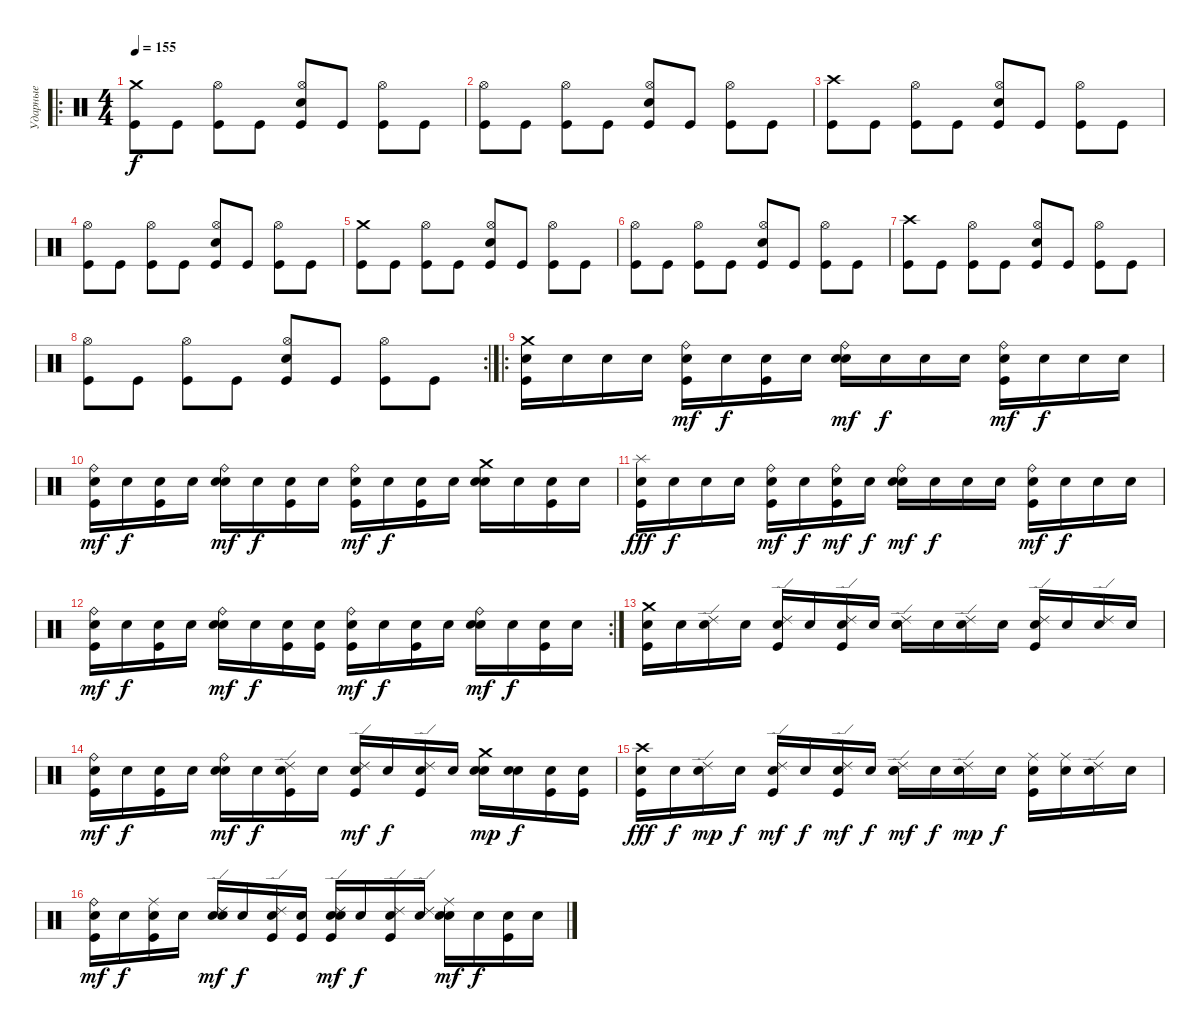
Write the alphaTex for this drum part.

\track ("Ударные" "Ударные") {instrument percussion}
\staff {score}
\articulation defaults
\ro
\ts (4 4)
\tempo 155
\clef neutral
\ks c
("Crash medium (hit)" "Kick (hit)").8{dy f} "Kick (hit)".8 ("Hi-Hat (open)" "Kick (hit)").8 "Kick (hit)".8 ("Snare (hit) 2" "Hi-Hat (open)" "Kick (hit)").8 "Kick (hit)".8 ("Hi-Hat (open)" "Kick (hit)").8 "Kick (hit)".8 |
("Hi-Hat (open)" "Kick (hit)").8 "Kick (hit)".8 ("Hi-Hat (open)" "Kick (hit)").8 "Kick (hit)".8 ("Snare (hit) 2" "Hi-Hat (open)" "Kick (hit)").8 "Kick (hit)".8 ("Hi-Hat (open)" "Kick (hit)").8 "Kick (hit)".8 |
("Crash high (hit)" "Kick (hit)").8 "Kick (hit)".8 ("Hi-Hat (open)" "Kick (hit)").8 "Kick (hit)".8 ("Snare (hit) 2" "Hi-Hat (open)" "Kick (hit)").8 "Kick (hit)".8 ("Hi-Hat (open)" "Kick (hit)").8 "Kick (hit)".8 |
("Hi-Hat (open)" "Kick (hit)").8 "Kick (hit)".8 ("Hi-Hat (open)" "Kick (hit)").8 "Kick (hit)".8 ("Snare (hit) 2" "Hi-Hat (open)" "Kick (hit)").8 "Kick (hit)".8 ("Hi-Hat (open)" "Kick (hit)").8 "Kick (hit)".8 |
("Crash medium (hit)" "Kick (hit)").8 "Kick (hit)".8 ("Hi-Hat (open)" "Kick (hit)").8 "Kick (hit)".8 ("Snare (hit) 2" "Hi-Hat (open)" "Kick (hit)").8 "Kick (hit)".8 ("Hi-Hat (open)" "Kick (hit)").8 "Kick (hit)".8 |
("Hi-Hat (open)" "Kick (hit)").8 "Kick (hit)".8 ("Hi-Hat (open)" "Kick (hit)").8 "Kick (hit)".8 ("Snare (hit) 2" "Hi-Hat (open)" "Kick (hit)").8 "Kick (hit)".8 ("Hi-Hat (open)" "Kick (hit)").8 "Kick (hit)".8 |
("Crash high (hit)" "Kick (hit)").8 "Kick (hit)".8 ("Hi-Hat (open)" "Kick (hit)").8 "Kick (hit)".8 ("Snare (hit) 2" "Hi-Hat (open)" "Kick (hit)").8 "Kick (hit)".8 ("Hi-Hat (open)" "Kick (hit)").8 "Kick (hit)".8 |
\rc 2
("Hi-Hat (open)" "Kick (hit)").8 "Kick (hit)".8 ("Hi-Hat (open)" "Kick (hit)").8 "Kick (hit)".8 ("Snare (hit) 2" "Hi-Hat (open)" "Kick (hit)").8 "Kick (hit)".8 ("Hi-Hat (open)" "Kick (hit)").8 "Kick (hit)".8 |
\ro
("Crash medium (hit)" "Kick (hit)" "Snare (hit)").16 "Snare (hit)".16 "Snare (hit)".16 "Snare (hit)".16 ("Ride (bell)" "Kick (hit)" "Snare (hit)").16{dy mf} "Snare (hit)".16{dy f} ("Kick (hit)" "Snare (hit)").16 "Snare (hit)".16 ("Snare (hit) 2" "Ride (bell)" "Snare (hit)").16{dy mf} "Snare (hit)".16{dy f} "Snare (hit)".16 "Snare (hit)".16 ("Ride (bell)" "Kick (hit)" "Snare (hit)").16{dy mf} "Snare (hit)".16{dy f} "Snare (hit)".16 "Snare (hit)".16 |
("Ride (bell)" "Kick (hit)" "Snare (hit)").16{dy mf} "Snare (hit)".16{dy f} ("Kick (hit)" "Snare (hit)").16 "Snare (hit)".16 ("Snare (hit) 2" "Ride (bell)" "Snare (hit)").16{dy mf} "Snare (hit)".16{dy f} ("Kick (hit)" "Snare (hit)").16 "Snare (hit)".16 ("Ride (bell)" "Kick (hit)" "Snare (hit)").16{dy mf} "Snare (hit)".16{dy f} ("Kick (hit)" "Snare (hit)").16 "Snare (hit)".16 ("Snare (hit) 2" "Crash medium (hit)" "Snare (hit)").16 "Snare (hit)".16 ("Kick (hit)" "Snare (hit)").16 "Snare (hit)".16 |
("Splash (hit)" "Kick (hit)" "Snare (hit)").16{dy fff} "Snare (hit)".16{dy f} "Snare (hit)".16 "Snare (hit)".16 ("Ride (bell)" "Kick (hit)" "Snare (hit)").16{dy mf} "Snare (hit)".16{dy f} ("Ride (bell)" "Kick (hit)" "Snare (hit)").16{dy mf} "Snare (hit)".16{dy f} ("Snare (hit) 2" "Ride (bell)" "Snare (hit)").16{dy mf} "Snare (hit)".16{dy f} "Snare (hit)".16 "Snare (hit)".16 ("Ride (bell)" "Kick (hit)" "Snare (hit)").16{dy mf} "Snare (hit)".16{dy f} "Snare (hit)".16 "Snare (hit)".16 |
\rc 2
("Ride (bell)" "Kick (hit)" "Snare (hit)").16{dy mf} "Snare (hit)".16{dy f} ("Kick (hit)" "Snare (hit)").16 "Snare (hit)".16 ("Snare (hit) 2" "Ride (bell)" "Snare (hit)").16{dy mf} "Snare (hit)".16{dy f} ("Kick (hit)" "Snare (hit)").16 ("Kick (hit)" "Snare (hit)").16 ("Ride (bell)" "Kick (hit)" "Snare (hit)").16{dy mf} "Snare (hit)".16{dy f} ("Kick (hit)" "Snare (hit)").16 "Snare (hit)".16 ("Snare (hit) 2" "Ride (bell)" "Snare (hit)").16{dy mf} "Snare (hit)".16{dy f} ("Kick (hit)" "Snare (hit)").16 "Snare (hit)".16 |
("Crash medium (hit)" "Kick (hit)" "Snare (hit)").16 "Snare (hit)".16 ("Ride (edge) 2" "Snare (hit)").16 "Snare (hit)".16 ("Ride (edge) 2" "Kick (hit)" "Snare (hit)").16 "Snare (hit)".16 ("Ride (edge) 2" "Kick (hit)" "Snare (hit)").16 "Snare (hit)".16 ("Snare (hit) 2" "Ride (edge) 2" "Snare (hit)").16 "Snare (hit)".16 ("Ride (edge) 2" "Snare (hit)").16 "Snare (hit)".16 ("Kick (hit)" "Ride (edge) 2" "Snare (hit)").16 "Snare (hit)".16 ("Ride (edge) 2" "Snare (hit)").16 "Snare (hit)".16 |
("Ride (bell)" "Kick (hit)" "Snare (hit)").16{dy mf} "Snare (hit)".16{dy f} ("Kick (hit)" "Snare (hit)").16 "Snare (hit)".16 ("Snare (hit) 2" "Ride (bell)" "Snare (hit)").16{dy mf} "Snare (hit)".16{dy f} ("Ride (edge) 2" "Kick (hit)" "Snare (hit)").16 "Snare (hit)".16 ("Ride (edge) 2" "Kick (hit)" "Snare (hit)").16{dy mf} "Snare (hit)".16{dy f} ("Ride (edge) 2" "Kick (hit)" "Snare (hit)").16 "Snare (hit)".16 ("Snare (hit) 2" "Crash medium (hit)" "Snare (hit)").16{dy mp} ("Snare (hit) 2" "Snare (hit)").16{dy f} ("Kick (hit)" "Snare (hit)").16 ("Kick (hit)" "Snare (hit)").16 |
("Crash high (hit)" "Kick (hit)" "Snare (hit)").16{dy fff} "Snare (hit)".16{dy f} ("Ride (edge) 2" "Snare (hit)").16{dy mp} "Snare (hit)".16{dy f} ("Ride (edge) 2" "Kick (hit)" "Snare (hit)").16{dy mf} "Snare (hit)".16{dy f} ("Ride (edge) 2" "Kick (hit)" "Snare (hit)").16{dy mf} "Snare (hit)".16{dy f} ("Snare (hit) 2" "Ride (edge) 2" "Snare (hit)").16{dy mf} "Snare (hit)".16{dy f} ("Ride (edge) 2" "Snare (hit)").16{dy mp} "Snare (hit)".16{dy f} ("Ride (middle)" "Kick (hit)" "Snare (hit)").16 ("Ride (middle)" "Snare (hit)").16 ("Ride (edge) 2" "Snare (hit)").16 "Snare (hit)".16 |
("Ride (bell)" "Kick (hit)" "Snare (hit)").16{dy mf} "Snare (hit)".16{dy f} ("Ride (middle)" "Kick (hit)" "Snare (hit)").16 "Snare (hit)".16 ("Snare (hit) 2" "Ride (edge) 2" "Snare (hit)").16{dy mf} "Snare (hit)".16{dy f} ("Ride (edge) 2" "Kick (hit)" "Snare (hit)").16 ("Kick (hit)" "Snare (hit)").16 ("Snare (hit) 2" "Ride (edge) 2" "Kick (hit)" "Snare (hit)").16{dy mf} "Snare (hit)".16{dy f} ("Ride (edge) 2" "Kick (hit)" "Snare (hit)").16 ("Ride (edge) 2" "Snare (hit)").16 ("Snare (hit) 2" "Ride (middle)" "Snare (hit)").16{dy mf} "Snare (hit)".16{dy f} ("Kick (hit)" "Snare (hit)").16 "Snare (hit)".16
